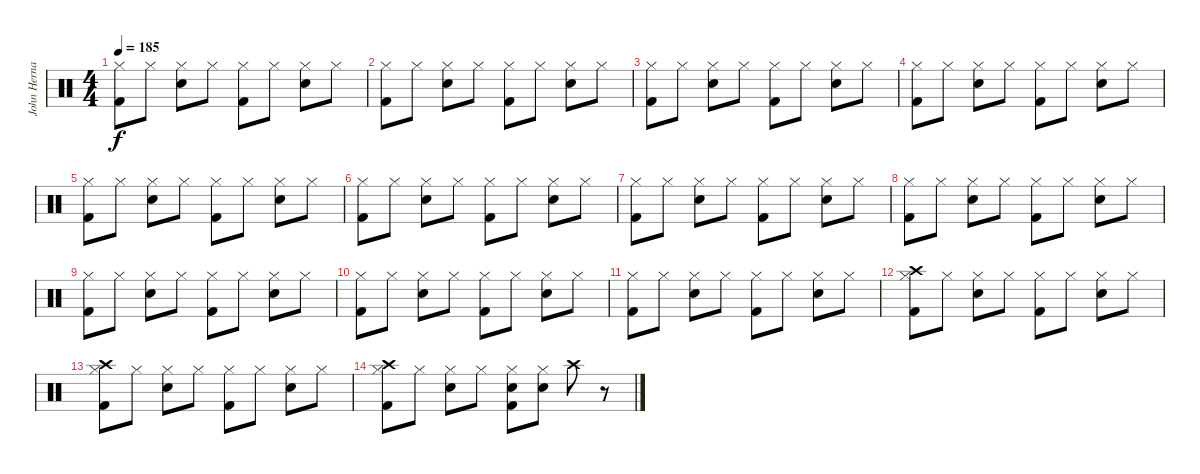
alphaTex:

\track ("John Hernandez" "John Herna") {instrument percussion}
\staff {score}
\articulation defaults
\ts (4 4)
\tempo 185
\clef neutral
\ks c
("Hi-Hat (closed)" "Kick (hit) 2").8{dy f} "Hi-Hat (closed)".8 ("Hi-Hat (closed)" "Snare (hit) 2").8 "Hi-Hat (closed)".8 ("Hi-Hat (closed)" "Kick (hit) 2").8 "Hi-Hat (closed)".8 ("Hi-Hat (closed)" "Snare (hit) 2").8 "Hi-Hat (closed)".8 |
("Hi-Hat (closed)" "Kick (hit) 2").8 "Hi-Hat (closed)".8 ("Hi-Hat (closed)" "Snare (hit) 2").8 "Hi-Hat (closed)".8 ("Hi-Hat (closed)" "Kick (hit) 2").8 "Hi-Hat (closed)".8 ("Hi-Hat (closed)" "Snare (hit) 2").8 "Hi-Hat (closed)".8 |
("Hi-Hat (closed)" "Kick (hit) 2").8 "Hi-Hat (closed)".8 ("Hi-Hat (closed)" "Snare (hit) 2").8 "Hi-Hat (closed)".8 ("Hi-Hat (closed)" "Kick (hit) 2").8 "Hi-Hat (closed)".8 ("Hi-Hat (closed)" "Snare (hit) 2").8 "Hi-Hat (closed)".8 |
("Hi-Hat (closed)" "Kick (hit) 2").8 "Hi-Hat (closed)".8 ("Hi-Hat (closed)" "Snare (hit) 2").8 "Hi-Hat (closed)".8 ("Hi-Hat (closed)" "Kick (hit) 2").8 "Hi-Hat (closed)".8 ("Hi-Hat (closed)" "Snare (hit) 2").8 "Hi-Hat (closed)".8 |
("Hi-Hat (closed)" "Kick (hit) 2").8 "Hi-Hat (closed)".8 ("Hi-Hat (closed)" "Snare (hit) 2").8 "Hi-Hat (closed)".8 ("Hi-Hat (closed)" "Kick (hit) 2").8 "Hi-Hat (closed)".8 ("Hi-Hat (closed)" "Snare (hit) 2").8 "Hi-Hat (closed)".8 |
("Hi-Hat (closed)" "Kick (hit) 2").8 "Hi-Hat (closed)".8 ("Hi-Hat (closed)" "Snare (hit) 2").8 "Hi-Hat (closed)".8 ("Hi-Hat (closed)" "Kick (hit) 2").8 "Hi-Hat (closed)".8 ("Hi-Hat (closed)" "Snare (hit) 2").8 "Hi-Hat (closed)".8 |
("Hi-Hat (closed)" "Kick (hit) 2").8 "Hi-Hat (closed)".8 ("Hi-Hat (closed)" "Snare (hit) 2").8 "Hi-Hat (closed)".8 ("Hi-Hat (closed)" "Kick (hit) 2").8 "Hi-Hat (closed)".8 ("Hi-Hat (closed)" "Snare (hit) 2").8 "Hi-Hat (closed)".8 |
("Hi-Hat (closed)" "Kick (hit) 2").8 "Hi-Hat (closed)".8 ("Hi-Hat (closed)" "Snare (hit) 2").8 "Hi-Hat (closed)".8 ("Hi-Hat (closed)" "Kick (hit) 2").8 "Hi-Hat (closed)".8 ("Hi-Hat (closed)" "Snare (hit) 2").8 "Hi-Hat (closed)".8 |
("Hi-Hat (closed)" "Kick (hit) 2").8 "Hi-Hat (closed)".8 ("Hi-Hat (closed)" "Snare (hit) 2").8 "Hi-Hat (closed)".8 ("Hi-Hat (closed)" "Kick (hit) 2").8 "Hi-Hat (closed)".8 ("Hi-Hat (closed)" "Snare (hit) 2").8 "Hi-Hat (closed)".8 |
("Hi-Hat (closed)" "Kick (hit) 2").8 "Hi-Hat (closed)".8 ("Hi-Hat (closed)" "Snare (hit) 2").8 "Hi-Hat (closed)".8 ("Hi-Hat (closed)" "Kick (hit) 2").8 "Hi-Hat (closed)".8 ("Hi-Hat (closed)" "Snare (hit) 2").8 "Hi-Hat (closed)".8 |
("Hi-Hat (closed)" "Kick (hit) 2").8 "Hi-Hat (closed)".8 ("Hi-Hat (closed)" "Snare (hit) 2").8 "Hi-Hat (closed)".8 ("Hi-Hat (closed)" "Kick (hit) 2").8 "Hi-Hat (closed)".8 ("Hi-Hat (closed)" "Snare (hit) 2").8 "Hi-Hat (closed)".8 |
("Crash high (hit)" "Hi-Hat (closed)" "Kick (hit) 2").8 "Hi-Hat (closed)".8 ("Hi-Hat (closed)" "Snare (hit) 2").8 "Hi-Hat (closed)".8 ("Hi-Hat (closed)" "Kick (hit) 2").8 "Hi-Hat (closed)".8 ("Hi-Hat (closed)" "Snare (hit) 2").8 "Hi-Hat (closed)".8 |
("Crash high (hit)" "Hi-Hat (closed)" "Kick (hit) 2").8 "Hi-Hat (closed)".8 ("Hi-Hat (closed)" "Snare (hit) 2").8 "Hi-Hat (closed)".8 ("Hi-Hat (closed)" "Kick (hit) 2").8 "Hi-Hat (closed)".8 ("Hi-Hat (closed)" "Snare (hit) 2").8 "Hi-Hat (closed)".8 |
("Crash high (hit)" "Hi-Hat (closed)" "Kick (hit) 2").8 "Hi-Hat (closed)".8 ("Hi-Hat (closed)" "Snare (hit) 2").8 "Hi-Hat (closed)".8 ("Hi-Hat (closed)" "Snare (hit) 2" "Kick (hit) 2").8 ("Hi-Hat (closed)" "Snare (hit) 2").8 "Crash high (hit)".8 r.8
